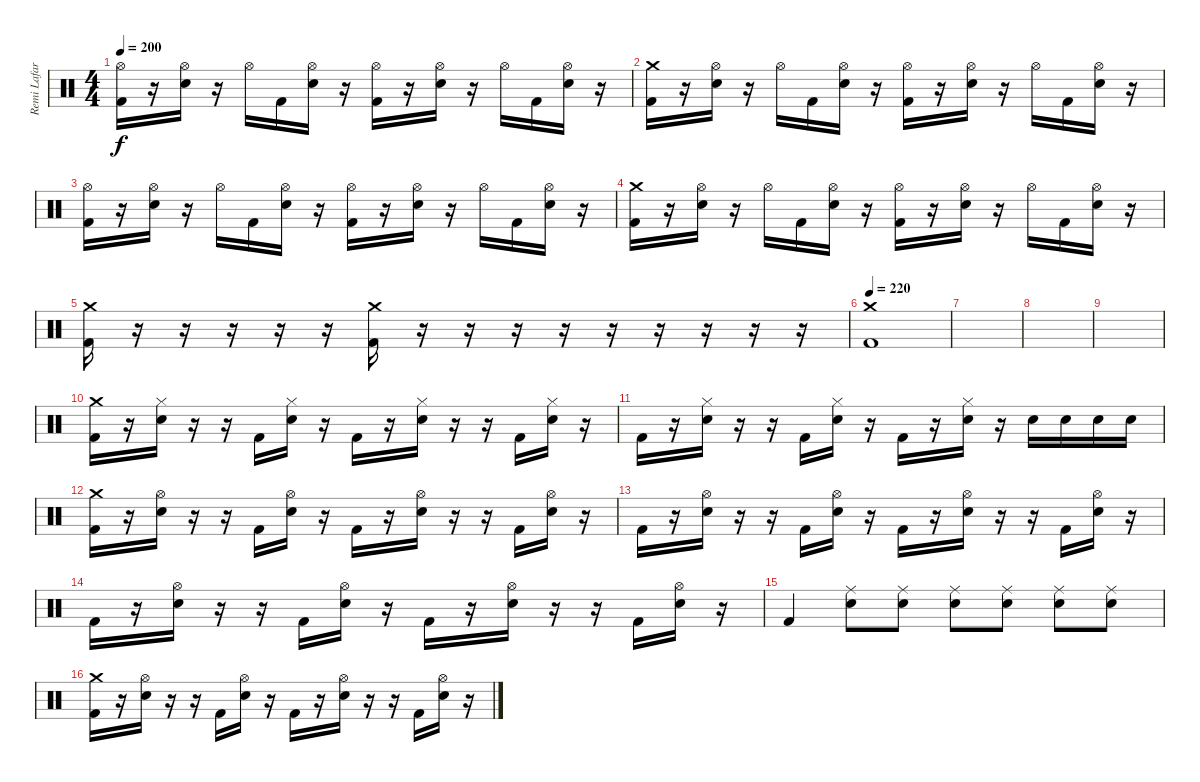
\track ("Remi Lafargue " "Remi Lafar") {instrument percussion}
\staff {score}
\articulation defaults
\ts (4 4)
\tempo 200
\clef neutral
\ks c
("Hi-Hat (open)" "Kick (hit) 2").16{dy f} r.16 ("Hi-Hat (open)" "Snare (hit) 2").16 r.16 "Hi-Hat (open)".16 "Kick (hit) 2".16 ("Hi-Hat (open)" "Snare (hit) 2").16 r.16 ("Hi-Hat (open)" "Kick (hit) 2").16 r.16 ("Hi-Hat (open)" "Snare (hit) 2").16 r.16 "Hi-Hat (open)".16 "Kick (hit) 2".16 ("Hi-Hat (open)" "Snare (hit) 2").16 r.16 |
("Crash medium (hit)" "Kick (hit) 2").16 r.16 ("Hi-Hat (open)" "Snare (hit) 2").16 r.16 "Hi-Hat (open)".16 "Kick (hit) 2".16 ("Hi-Hat (open)" "Snare (hit) 2").16 r.16 ("Hi-Hat (open)" "Kick (hit) 2").16 r.16 ("Hi-Hat (open)" "Snare (hit) 2").16 r.16 "Hi-Hat (open)".16 "Kick (hit) 2".16 ("Hi-Hat (open)" "Snare (hit) 2").16 r.16 |
("Hi-Hat (open)" "Kick (hit) 2").16 r.16 ("Hi-Hat (open)" "Snare (hit) 2").16 r.16 "Hi-Hat (open)".16 "Kick (hit) 2".16 ("Hi-Hat (open)" "Snare (hit) 2").16 r.16 ("Hi-Hat (open)" "Kick (hit) 2").16 r.16 ("Hi-Hat (open)" "Snare (hit) 2").16 r.16 "Hi-Hat (open)".16 "Kick (hit) 2".16 ("Hi-Hat (open)" "Snare (hit) 2").16 r.16 |
("Crash medium (hit)" "Kick (hit) 2").16 r.16 ("Hi-Hat (open)" "Snare (hit) 2").16 r.16 "Hi-Hat (open)".16 "Kick (hit) 2".16 ("Hi-Hat (open)" "Snare (hit) 2").16 r.16 ("Hi-Hat (open)" "Kick (hit) 2").16 r.16 ("Hi-Hat (open)" "Snare (hit) 2").16 r.16 "Hi-Hat (open)".16 "Kick (hit) 2".16 ("Hi-Hat (open)" "Snare (hit) 2").16 r.16 |
("Crash medium (hit)" "Kick (hit) 2").16 r.16 r.16 r.16 r.16 r.16 ("Crash medium (hit)" "Kick (hit) 2").16 r.16 r.16 r.16 r.16 r.16 r.16 r.16 r.16 r.16 |
\tempo 220
("Crash medium (hit)" "Kick (hit) 2").1 |
|
|
|
("Crash medium (hit)" "Kick (hit) 2").16 r.16 ("Hi-Hat (closed)" "Snare (hit) 2").16 r.16 r.16 "Kick (hit) 2".16 ("Hi-Hat (closed)" "Snare (hit) 2").16 r.16 "Kick (hit) 2".16 r.16 ("Hi-Hat (closed)" "Snare (hit) 2").16 r.16 r.16 "Kick (hit) 2".16 ("Hi-Hat (closed)" "Snare (hit) 2").16 r.16 |
"Kick (hit) 2".16 r.16 ("Hi-Hat (closed)" "Snare (hit) 2").16 r.16 r.16 "Kick (hit) 2".16 ("Hi-Hat (closed)" "Snare (hit) 2").16 r.16 "Kick (hit) 2".16 r.16 ("Hi-Hat (closed)" "Snare (hit) 2").16 r.16 "Snare (hit) 2".16 "Snare (hit) 2".16 "Snare (hit) 2".16 "Snare (hit) 2".16 |
("Crash medium (hit)" "Kick (hit) 2").16 r.16 ("Hi-Hat (open)" "Snare (hit) 2").16 r.16 r.16 "Kick (hit) 2".16 ("Hi-Hat (open)" "Snare (hit) 2").16 r.16 "Kick (hit) 2".16 r.16 ("Hi-Hat (open)" "Snare (hit) 2").16 r.16 r.16 "Kick (hit) 2".16 ("Hi-Hat (open)" "Snare (hit) 2").16 r.16 |
"Kick (hit) 2".16 r.16 ("Hi-Hat (open)" "Snare (hit) 2").16 r.16 r.16 "Kick (hit) 2".16 ("Hi-Hat (open)" "Snare (hit) 2").16 r.16 "Kick (hit) 2".16 r.16 ("Hi-Hat (open)" "Snare (hit) 2").16 r.16 r.16 "Kick (hit) 2".16 ("Hi-Hat (open)" "Snare (hit) 2").16 r.16 |
"Kick (hit) 2".16 r.16 ("Hi-Hat (open)" "Snare (hit) 2").16 r.16 r.16 "Kick (hit) 2".16 ("Hi-Hat (open)" "Snare (hit) 2").16 r.16 "Kick (hit) 2".16 r.16 ("Hi-Hat (open)" "Snare (hit) 2").16 r.16 r.16 "Kick (hit) 2".16 ("Hi-Hat (open)" "Snare (hit) 2").16 r.16 |
"Kick (hit) 2".4 ("Ride (middle)" "Snare (hit) 2").8 ("Ride (middle)" "Snare (hit) 2").8 ("Ride (middle)" "Snare (hit) 2").8 ("Ride (middle)" "Snare (hit) 2").8 ("Ride (middle)" "Snare (hit) 2").8 ("Ride (middle)" "Snare (hit) 2").8 |
("Crash medium (hit)" "Kick (hit) 2").16 r.16 ("Hi-Hat (open)" "Snare (hit) 2").16 r.16 r.16 "Kick (hit) 2".16 ("Hi-Hat (open)" "Snare (hit) 2").16 r.16 "Kick (hit) 2".16 r.16 ("Hi-Hat (open)" "Snare (hit) 2").16 r.16 r.16 "Kick (hit) 2".16 ("Hi-Hat (open)" "Snare (hit) 2").16 r.16
